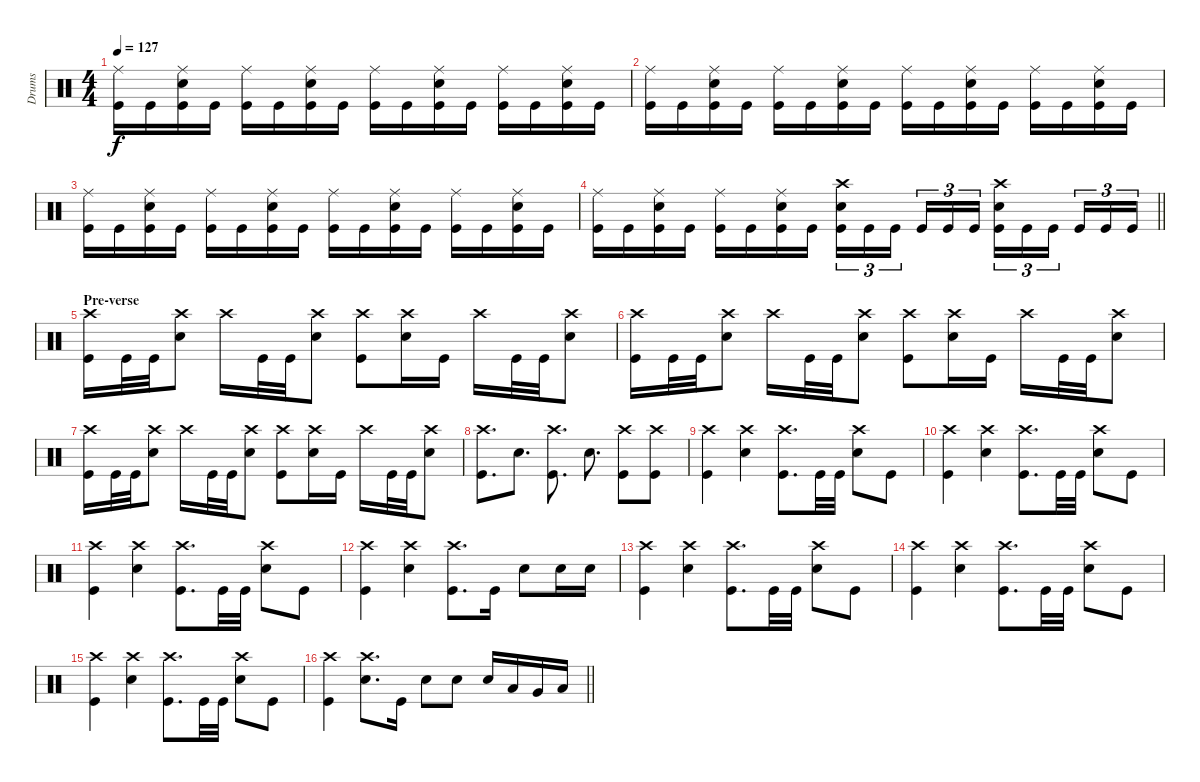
\track ("Drums" "Drums") {instrument percussion}
\staff {score}
\articulation defaults
\ts (4 4)
\tempo 127
\clef neutral
\ks c
("Kick (hit)" "Ride (middle)").16{dy f} "Kick (hit)".16 ("Snare (hit) 2" "Ride (middle)" "Kick (hit)").16 "Kick (hit)".16 ("Kick (hit)" "Ride (middle)").16 "Kick (hit)".16 ("Snare (hit) 2" "Ride (middle)" "Kick (hit)").16 "Kick (hit)".16 ("Kick (hit)" "Ride (middle)").16 "Kick (hit)".16 ("Snare (hit) 2" "Ride (middle)" "Kick (hit)").16 "Kick (hit)".16 ("Kick (hit)" "Ride (middle)").16 "Kick (hit)".16 ("Snare (hit) 2" "Ride (middle)" "Kick (hit)").16 "Kick (hit)".16 |
("Kick (hit)" "Ride (middle)").16 "Kick (hit)".16 ("Snare (hit) 2" "Ride (middle)" "Kick (hit)").16 "Kick (hit)".16 ("Kick (hit)" "Ride (middle)").16 "Kick (hit)".16 ("Snare (hit) 2" "Ride (middle)" "Kick (hit)").16 "Kick (hit)".16 ("Kick (hit)" "Ride (middle)").16 "Kick (hit)".16 ("Snare (hit) 2" "Ride (middle)" "Kick (hit)").16 "Kick (hit)".16 ("Kick (hit)" "Ride (middle)").16 "Kick (hit)".16 ("Snare (hit) 2" "Ride (middle)" "Kick (hit)").16 "Kick (hit)".16 |
("Kick (hit)" "Ride (middle)").16 "Kick (hit)".16 ("Snare (hit) 2" "Ride (middle)" "Kick (hit)").16 "Kick (hit)".16 ("Kick (hit)" "Ride (middle)").16 "Kick (hit)".16 ("Snare (hit) 2" "Ride (middle)" "Kick (hit)").16 "Kick (hit)".16 ("Kick (hit)" "Ride (middle)").16 "Kick (hit)".16 ("Snare (hit) 2" "Ride (middle)" "Kick (hit)").16 "Kick (hit)".16 ("Kick (hit)" "Ride (middle)").16 "Kick (hit)".16 ("Snare (hit) 2" "Ride (middle)" "Kick (hit)").16 "Kick (hit)".16 |
\barLineRight lightlight
("Kick (hit)" "Ride (middle)").16 "Kick (hit)".16 ("Snare (hit) 2" "Ride (middle)" "Kick (hit)").16 "Kick (hit)".16 ("Kick (hit)" "Ride (middle)").16 "Kick (hit)".16 ("Snare (hit) 2" "Ride (middle)" "Kick (hit)").16 "Kick (hit)".16 ("Kick (hit)" "Snare (hit) 2" "Crash high (hit)").16{tu (3 2)} "Kick (hit)".16{tu (3 2)} "Kick (hit)".16{tu (3 2) beam splitsecondary} "Kick (hit)".16{tu (3 2)} "Kick (hit)".16{tu (3 2)} "Kick (hit)".16{tu (3 2)} ("Kick (hit)" "Snare (hit) 2" "Crash high (hit)").16{tu (3 2)} "Kick (hit)".16{tu (3 2)} "Kick (hit)".16{tu (3 2) beam splitsecondary} "Kick (hit)".16{tu (3 2)} "Kick (hit)".16{tu (3 2)} "Kick (hit)".16{tu (3 2)} |
\section ("" "Pre-verse")
("Kick (hit)" "Crash high (hit)").16 "Kick (hit)".32 "Kick (hit)".32 ("Snare (hit) 2" "Crash high (hit)").8 "Crash high (hit)".16 "Kick (hit)".32 "Kick (hit)".32 ("Snare (hit) 2" "Crash high (hit)").8 ("Kick (hit)" "Crash high (hit)").8 ("Snare (hit) 2" "Crash high (hit)").16 "Kick (hit)".16 "Crash high (hit)".16 "Kick (hit)".32 "Kick (hit)".32 ("Snare (hit) 2" "Crash high (hit)").8 |
("Kick (hit)" "Crash high (hit)").16 "Kick (hit)".32 "Kick (hit)".32 ("Snare (hit) 2" "Crash high (hit)").8 "Crash high (hit)".16 "Kick (hit)".32 "Kick (hit)".32 ("Snare (hit) 2" "Crash high (hit)").8 ("Kick (hit)" "Crash high (hit)").8 ("Snare (hit) 2" "Crash high (hit)").16 "Kick (hit)".16 "Crash high (hit)".16 "Kick (hit)".32 "Kick (hit)".32 ("Snare (hit) 2" "Crash high (hit)").8 |
("Kick (hit)" "Crash high (hit)").16 "Kick (hit)".32 "Kick (hit)".32 ("Snare (hit) 2" "Crash high (hit)").8 "Crash high (hit)".16 "Kick (hit)".32 "Kick (hit)".32 ("Snare (hit) 2" "Crash high (hit)").8 ("Kick (hit)" "Crash high (hit)").8 ("Snare (hit) 2" "Crash high (hit)").16 "Kick (hit)".16 "Crash high (hit)".16 "Kick (hit)".32 "Kick (hit)".32 ("Snare (hit) 2" "Crash high (hit)").8 |
("Kick (hit)" "Crash high (hit)").8{d} "Snare (hit) 2".8{d} ("Kick (hit)" "Crash high (hit)").8{d} "Snare (hit) 2".8{d} ("Kick (hit)" "Crash high (hit)").8 ("Kick (hit)" "Crash high (hit)").8 |
("Kick (hit)" "Crash high (hit)").4 ("Snare (hit) 2" "Crash high (hit)").4 ("Kick (hit)" "Crash high (hit)").8{d} "Kick (hit)".32 "Kick (hit)".32 ("Snare (hit) 2" "Crash high (hit)").8 "Kick (hit)".8 |
("Kick (hit)" "Crash high (hit)").4 ("Snare (hit) 2" "Crash high (hit)").4 ("Kick (hit)" "Crash high (hit)").8{d} "Kick (hit)".32 "Kick (hit)".32 ("Snare (hit) 2" "Crash high (hit)").8 "Kick (hit)".8 |
("Kick (hit)" "Crash high (hit)").4 ("Snare (hit) 2" "Crash high (hit)").4 ("Kick (hit)" "Crash high (hit)").8{d} "Kick (hit)".32 "Kick (hit)".32 ("Snare (hit) 2" "Crash high (hit)").8 "Kick (hit)".8 |
("Kick (hit)" "Crash high (hit)").4 ("Snare (hit) 2" "Crash high (hit)").4 ("Kick (hit)" "Crash high (hit)").8{d} "Kick (hit)".16 "Snare (hit) 2".8 "Snare (hit) 2".16 "Snare (hit) 2".16 |
("Kick (hit)" "Crash high (hit)").4 ("Snare (hit) 2" "Crash high (hit)").4 ("Kick (hit)" "Crash high (hit)").8{d} "Kick (hit)".32 "Kick (hit)".32 ("Snare (hit) 2" "Crash high (hit)").8 "Kick (hit)".8 |
("Kick (hit)" "Crash high (hit)").4 ("Snare (hit) 2" "Crash high (hit)").4 ("Kick (hit)" "Crash high (hit)").8{d} "Kick (hit)".32 "Kick (hit)".32 ("Snare (hit) 2" "Crash high (hit)").8 "Kick (hit)".8 |
("Kick (hit)" "Crash high (hit)").4 ("Snare (hit) 2" "Crash high (hit)").4 ("Kick (hit)" "Crash high (hit)").8{d} "Kick (hit)".32 "Kick (hit)".32 ("Snare (hit) 2" "Crash high (hit)").8 "Kick (hit)".8 |
\barLineRight lightlight
("Kick (hit)" "Crash high (hit)").4 ("Snare (hit) 2" "Crash high (hit)").8{d} "Kick (hit)".16 "Snare (hit) 2".8 "Snare (hit) 2".8 "Snare (hit) 2".16 "Low Tom (hit)".16 "Very Low Tom (hit)".16 "Low Floor Tom (hit)".16
